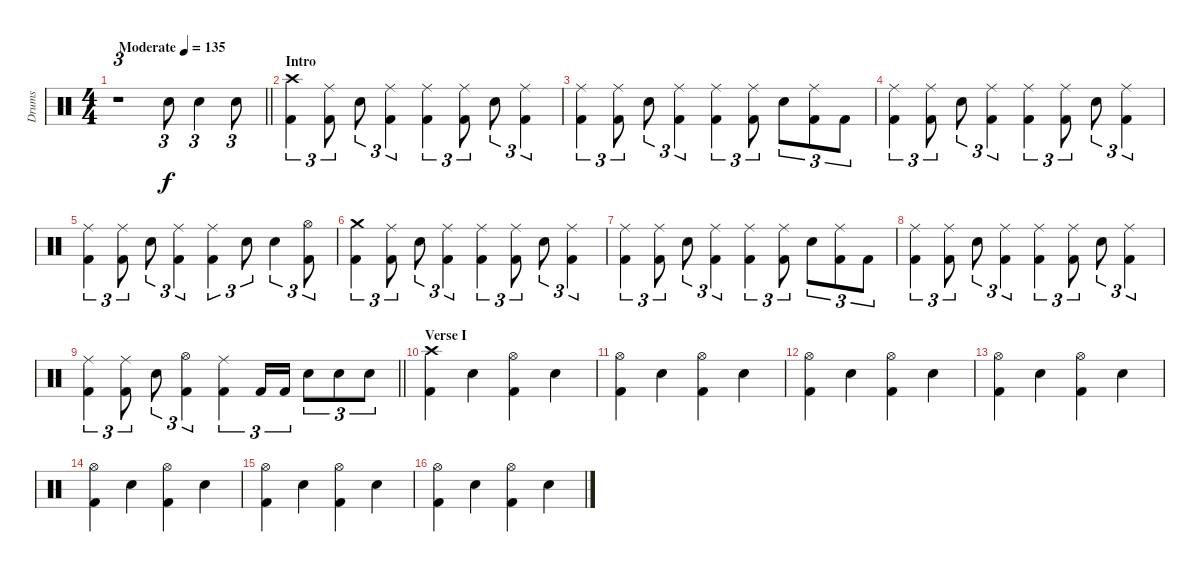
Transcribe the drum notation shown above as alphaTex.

\track ("Drums" "Drums") {instrument percussion}
\staff {score}
\articulation defaults
\ts (4 4)
\tempo (135 "Moderate")
\clef neutral
\barLineRight lightlight
\ks c
r.1{tu (3 2) dy f} "Snare (hit) 2".8{tu (3 2)} "Snare (hit) 2".4{tu (3 2)} "Snare (hit) 2".8{tu (3 2)} |
\section ("" "Intro")
("Crash high (hit)" "Kick (hit) 2").4{tu (3 2)} ("Ride (middle)" "Kick (hit) 2").8{tu (3 2)} "Snare (hit) 2".8{tu (3 2)} ("Ride (middle)" "Kick (hit) 2").4{tu (3 2)} ("Ride (middle)" "Kick (hit) 2").4{tu (3 2)} ("Ride (middle)" "Kick (hit) 2").8{tu (3 2)} "Snare (hit) 2".8{tu (3 2)} ("Ride (middle)" "Kick (hit) 2").4{tu (3 2)} |
("Ride (middle)" "Kick (hit) 2").4{tu (3 2)} ("Ride (middle)" "Kick (hit) 2").8{tu (3 2)} "Snare (hit) 2".8{tu (3 2)} ("Ride (middle)" "Kick (hit) 2").4{tu (3 2)} ("Ride (middle)" "Kick (hit) 2").4{tu (3 2)} ("Ride (middle)" "Kick (hit) 2").8{tu (3 2)} "Snare (hit) 2".8{tu (3 2)} ("Ride (middle)" "Kick (hit) 2").8{tu (3 2)} "Kick (hit) 2".8{tu (3 2)} |
("Ride (middle)" "Kick (hit) 2").4{tu (3 2)} ("Ride (middle)" "Kick (hit) 2").8{tu (3 2)} "Snare (hit) 2".8{tu (3 2)} ("Ride (middle)" "Kick (hit) 2").4{tu (3 2)} ("Ride (middle)" "Kick (hit) 2").4{tu (3 2)} ("Ride (middle)" "Kick (hit) 2").8{tu (3 2)} "Snare (hit) 2".8{tu (3 2)} ("Ride (middle)" "Kick (hit) 2").4{tu (3 2)} |
("Ride (middle)" "Kick (hit) 2").4{tu (3 2)} ("Ride (middle)" "Kick (hit) 2").8{tu (3 2)} "Snare (hit) 2".8{tu (3 2)} ("Ride (middle)" "Kick (hit) 2").4{tu (3 2)} ("Ride (middle)" "Kick (hit) 2").4{tu (3 2)} "Snare (hit) 2".8{tu (3 2)} "Snare (hit) 2".4{tu (3 2)} ("Hi-Hat (open)" "Kick (hit) 2").8{tu (3 2)} |
("Crash medium (hit)" "Kick (hit) 2").4{tu (3 2)} ("Ride (middle)" "Kick (hit) 2").8{tu (3 2)} "Snare (hit) 2".8{tu (3 2)} ("Ride (middle)" "Kick (hit) 2").4{tu (3 2)} ("Ride (middle)" "Kick (hit) 2").4{tu (3 2)} ("Ride (middle)" "Kick (hit) 2").8{tu (3 2)} "Snare (hit) 2".8{tu (3 2)} ("Ride (middle)" "Kick (hit) 2").4{tu (3 2)} |
("Ride (middle)" "Kick (hit) 2").4{tu (3 2)} ("Ride (middle)" "Kick (hit) 2").8{tu (3 2)} "Snare (hit) 2".8{tu (3 2)} ("Ride (middle)" "Kick (hit) 2").4{tu (3 2)} ("Ride (middle)" "Kick (hit) 2").4{tu (3 2)} ("Ride (middle)" "Kick (hit) 2").8{tu (3 2)} "Snare (hit) 2".8{tu (3 2)} ("Ride (middle)" "Kick (hit) 2").8{tu (3 2)} "Kick (hit) 2".8{tu (3 2)} |
("Ride (middle)" "Kick (hit) 2").4{tu (3 2)} ("Ride (middle)" "Kick (hit) 2").8{tu (3 2)} "Snare (hit) 2".8{tu (3 2)} ("Ride (middle)" "Kick (hit) 2").4{tu (3 2)} ("Ride (middle)" "Kick (hit) 2").4{tu (3 2)} ("Ride (middle)" "Kick (hit) 2").8{tu (3 2)} "Snare (hit) 2".8{tu (3 2)} ("Ride (middle)" "Kick (hit) 2").4{tu (3 2)} |
\barLineRight lightlight
("Ride (middle)" "Kick (hit) 2").4{tu (3 2)} ("Ride (middle)" "Kick (hit) 2").8{tu (3 2)} "Snare (hit) 2".8{tu (3 2)} ("Hi-Hat (open)" "Kick (hit) 2").4{tu (3 2)} ("Ride (middle)" "Kick (hit) 2").4{tu (3 2)} "Kick (hit) 2".16{tu (3 2)} "Kick (hit) 2".16{tu (3 2)} "Snare (hit) 2".8{tu (3 2)} "Snare (hit) 2".8{tu (3 2)} "Snare (hit) 2".8{tu (3 2)} |
\section ("" "Verse I")
("Crash high (hit)" "Kick (hit) 2").4 "Snare (hit) 2".4 ("Hi-Hat (open)" "Kick (hit) 2").4 "Snare (hit) 2".4 |
("Hi-Hat (open)" "Kick (hit) 2").4 "Snare (hit) 2".4 ("Hi-Hat (open)" "Kick (hit) 2").4 "Snare (hit) 2".4 |
("Hi-Hat (open)" "Kick (hit) 2").4 "Snare (hit) 2".4 ("Hi-Hat (open)" "Kick (hit) 2").4 "Snare (hit) 2".4 |
("Hi-Hat (open)" "Kick (hit) 2").4 "Snare (hit) 2".4 ("Hi-Hat (open)" "Kick (hit) 2").4 "Snare (hit) 2".4 |
("Hi-Hat (open)" "Kick (hit) 2").4 "Snare (hit) 2".4 ("Hi-Hat (open)" "Kick (hit) 2").4 "Snare (hit) 2".4 |
("Hi-Hat (open)" "Kick (hit) 2").4 "Snare (hit) 2".4 ("Hi-Hat (open)" "Kick (hit) 2").4 "Snare (hit) 2".4 |
("Hi-Hat (open)" "Kick (hit) 2").4 "Snare (hit) 2".4 ("Hi-Hat (open)" "Kick (hit) 2").4 "Snare (hit) 2".4
